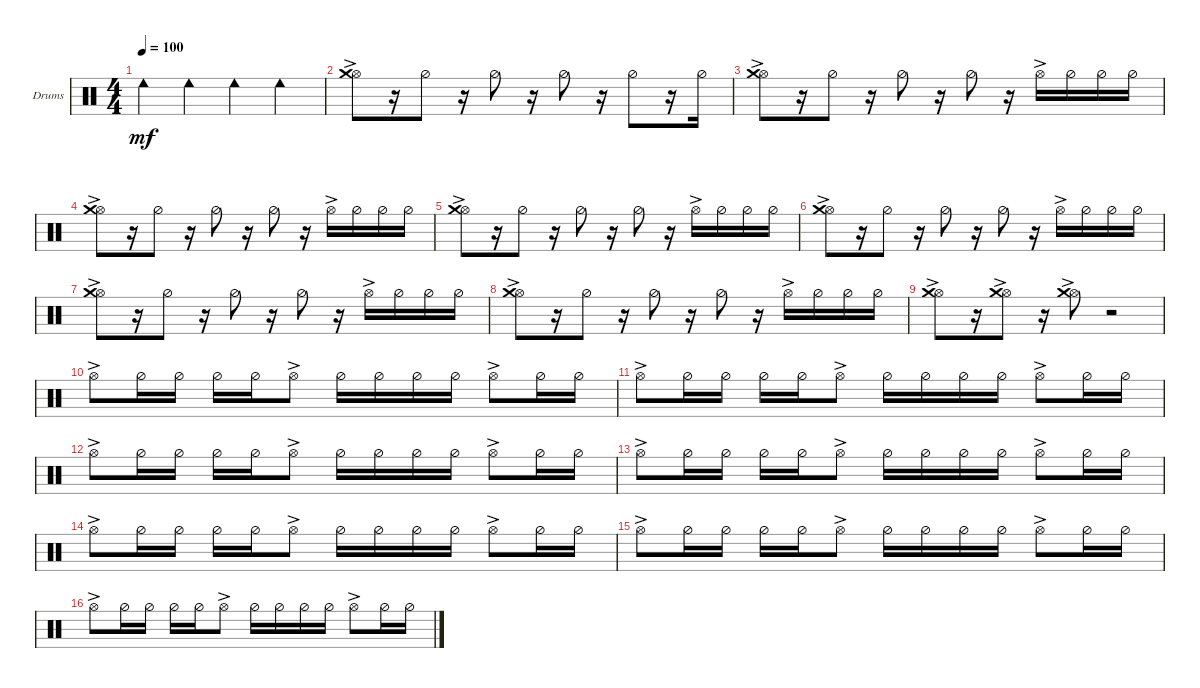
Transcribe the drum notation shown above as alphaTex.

\defaultSystemsLayout 4
\bracketExtendMode groupsimilarinstruments
\firstSystemTrackNameOrientation horizontal
\otherSystemsTrackNameOrientation horizontal
\track ("Drumkit 2" "Drums") {instrument percussion}
\staff {score}
\articulation defaults
\ts (4 4)
\tempo 100
\clef neutral
\ks c "Cowbell low (hit)".4{lyrics (0 "") lyrics (1 "") lyrics (2 "") lyrics (3 "") lyrics (4 "") dy mf} "Cowbell low (hit)".4 "Cowbell low (hit)".4 "Cowbell low (hit)".4
|
("Hi-Hat (open)"{ac} "Crash medium (hit)").8 r.16 "Hi-Hat (half)".8 r.16 "Hi-Hat (half)".8 r.16 "Hi-Hat (half)".8 r.16 "Hi-Hat (half)".8 r.16 "Hi-Hat (half)".16 |
("Hi-Hat (open)"{ac} "Crash medium (hit)").8 r.16 "Hi-Hat (half)".8 r.16 "Hi-Hat (half)".8 r.16 "Hi-Hat (half)".8 r.16 "Hi-Hat (open)"{ac}.16 "Hi-Hat (half)".16 "Hi-Hat (half)".16 "Hi-Hat (half)".16 |
("Hi-Hat (open)"{ac} "Crash medium (hit)").8 r.16 "Hi-Hat (half)".8 r.16 "Hi-Hat (half)".8 r.16 "Hi-Hat (half)".8 r.16 "Hi-Hat (open)"{ac}.16 "Hi-Hat (half)".16 "Hi-Hat (half)".16 "Hi-Hat (half)".16 |
("Hi-Hat (open)"{ac} "Crash medium (hit)").8 r.16 "Hi-Hat (half)".8 r.16 "Hi-Hat (half)".8 r.16 "Hi-Hat (half)".8 r.16 "Hi-Hat (open)"{ac}.16 "Hi-Hat (half)".16 "Hi-Hat (half)".16 "Hi-Hat (half)".16 |
("Hi-Hat (open)"{ac} "Crash medium (hit)").8 r.16 "Hi-Hat (half)".8 r.16 "Hi-Hat (half)".8 r.16 "Hi-Hat (half)".8 r.16 "Hi-Hat (open)"{ac}.16 "Hi-Hat (half)".16 "Hi-Hat (half)".16 "Hi-Hat (half)".16 |
("Hi-Hat (open)"{ac} "Crash medium (hit)").8 r.16 "Hi-Hat (half)".8 r.16 "Hi-Hat (half)".8 r.16 "Hi-Hat (half)".8 r.16 "Hi-Hat (open)"{ac}.16 "Hi-Hat (half)".16 "Hi-Hat (half)".16 "Hi-Hat (half)".16 |
("Hi-Hat (open)"{ac} "Crash medium (hit)").8 r.16 "Hi-Hat (half)".8 r.16 "Hi-Hat (half)".8 r.16 "Hi-Hat (half)".8 r.16 "Hi-Hat (open)"{ac}.16 "Hi-Hat (half)".16 "Hi-Hat (half)".16 "Hi-Hat (half)".16 |
("Hi-Hat (open)"{ac} "Crash medium (hit)").8 r.16 ("Hi-Hat (open)"{ac} "Crash medium (hit)").8 r.16 ("Hi-Hat (open)"{ac} "Crash medium (hit)").8 r.2 |
"Hi-Hat (open)"{ac}.8 "Hi-Hat (half)".16 "Hi-Hat (half)".16 "Hi-Hat (half)".16 "Hi-Hat (half)".16 "Hi-Hat (open)"{ac}.8 "Hi-Hat (half)".16 "Hi-Hat (half)".16 "Hi-Hat (half)".16 "Hi-Hat (half)".16 "Hi-Hat (open)"{ac}.8 "Hi-Hat (half)".16 "Hi-Hat (half)".16 |
"Hi-Hat (open)"{ac}.8 "Hi-Hat (half)".16 "Hi-Hat (half)".16 "Hi-Hat (half)".16 "Hi-Hat (half)".16 "Hi-Hat (open)"{ac}.8 "Hi-Hat (half)".16 "Hi-Hat (half)".16 "Hi-Hat (half)".16 "Hi-Hat (half)".16 "Hi-Hat (open)"{ac}.8 "Hi-Hat (half)".16 "Hi-Hat (half)".16 |
"Hi-Hat (open)"{ac}.8 "Hi-Hat (half)".16 "Hi-Hat (half)".16 "Hi-Hat (half)".16 "Hi-Hat (half)".16 "Hi-Hat (open)"{ac}.8 "Hi-Hat (half)".16 "Hi-Hat (half)".16 "Hi-Hat (half)".16 "Hi-Hat (half)".16 "Hi-Hat (open)"{ac}.8 "Hi-Hat (half)".16 "Hi-Hat (half)".16 |
"Hi-Hat (open)"{ac}.8 "Hi-Hat (half)".16 "Hi-Hat (half)".16 "Hi-Hat (half)".16 "Hi-Hat (half)".16 "Hi-Hat (open)"{ac}.8 "Hi-Hat (half)".16 "Hi-Hat (half)".16 "Hi-Hat (half)".16 "Hi-Hat (half)".16 "Hi-Hat (open)"{ac}.8 "Hi-Hat (half)".16 "Hi-Hat (half)".16 |
"Hi-Hat (open)"{ac}.8 "Hi-Hat (half)".16 "Hi-Hat (half)".16 "Hi-Hat (half)".16 "Hi-Hat (half)".16 "Hi-Hat (open)"{ac}.8 "Hi-Hat (half)".16 "Hi-Hat (half)".16 "Hi-Hat (half)".16 "Hi-Hat (half)".16 "Hi-Hat (open)"{ac}.8 "Hi-Hat (half)".16 "Hi-Hat (half)".16 |
"Hi-Hat (open)"{ac}.8 "Hi-Hat (half)".16 "Hi-Hat (half)".16 "Hi-Hat (half)".16 "Hi-Hat (half)".16 "Hi-Hat (open)"{ac}.8 "Hi-Hat (half)".16 "Hi-Hat (half)".16 "Hi-Hat (half)".16 "Hi-Hat (half)".16 "Hi-Hat (open)"{ac}.8 "Hi-Hat (half)".16 "Hi-Hat (half)".16 |
"Hi-Hat (open)"{ac}.8 "Hi-Hat (half)".16 "Hi-Hat (half)".16 "Hi-Hat (half)".16 "Hi-Hat (half)".16 "Hi-Hat (open)"{ac}.8 "Hi-Hat (half)".16 "Hi-Hat (half)".16 "Hi-Hat (half)".16 "Hi-Hat (half)".16 "Hi-Hat (open)"{ac}.8 "Hi-Hat (half)".16 "Hi-Hat (half)".16
